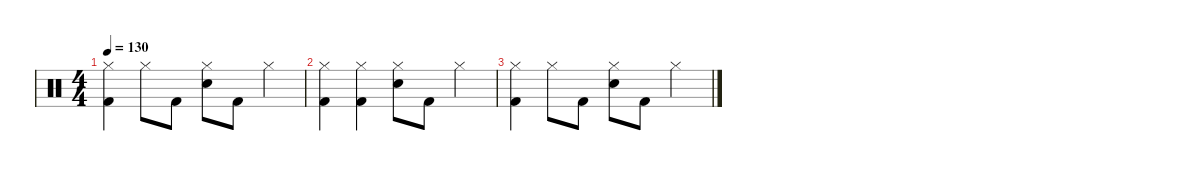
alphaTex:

\defaultSystemsLayout 4
\hideDynamics
\bracketExtendMode nobrackets
\singleTrackTrackNamePolicy hidden
\multiTrackTrackNamePolicy hidden
\firstSystemTrackNameMode fullname
\firstSystemTrackNameOrientation horizontal
\otherSystemsTrackNameOrientation horizontal
\track ("Bill Ward" "drm.") {instrument percussion}
\staff {score}
\articulation defaults
\ts (4 4)
\tempo 130
\clef neutral
\ks c
("Hi-Hat (closed)" "Kick (hit) 2").4{dy f beam Down} "Hi-Hat (closed)".8{beam Down} "Kick (hit) 2".8{beam Down} ("Hi-Hat (closed)" "Snare (hit) 2").8{beam Down} "Kick (hit) 2".8{beam Down} "Hi-Hat (closed)".4{beam Down} |
("Hi-Hat (closed)" "Kick (hit) 2").4{beam Down} ("Hi-Hat (closed)" "Kick (hit) 2").4{beam Down} ("Hi-Hat (closed)" "Snare (hit) 2").8{beam Down} "Kick (hit) 2".8{beam Down} "Hi-Hat (closed)".4{beam Down} |
("Hi-Hat (closed)" "Kick (hit) 2").4{beam Down} "Hi-Hat (closed)".8{beam Down} "Kick (hit) 2".8{beam Down} ("Hi-Hat (closed)" "Snare (hit) 2").8{beam Down} "Kick (hit) 2".8{beam Down} "Hi-Hat (closed)".4{beam Down}
